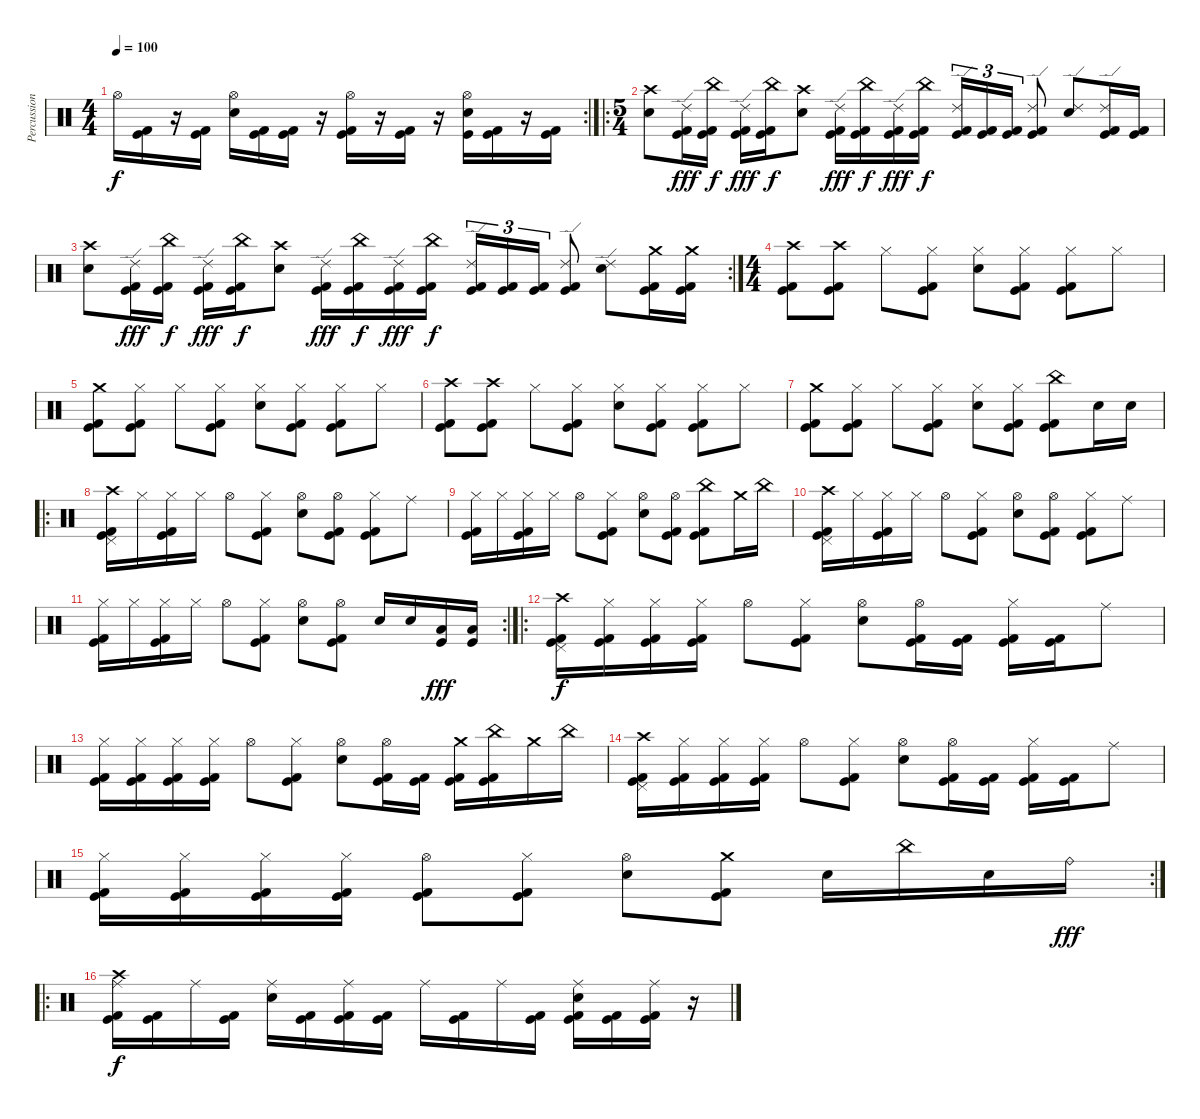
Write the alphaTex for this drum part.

\track ("Percussion" "Percussion") {instrument percussion}
\staff {score}
\articulation defaults
\rc 2
\ts (4 4)
\tempo 100
\clef neutral
\ks c "Hi-Hat (open)".16{dy f}
("Kick (hit) 2" "Kick (hit)").16 r.16 ("Kick (hit) 2" "Kick (hit)").16 ("Hi-Hat (open)" "Snare (hit) 2").16 ("Kick (hit) 2" "Kick (hit)").16 ("Kick (hit) 2" "Kick (hit)").16 r.16 ("Hi-Hat (open)" "Kick (hit) 2" "Kick (hit)").16 r.16 ("Kick (hit) 2" "Kick (hit)").16 r.16 ("Hi-Hat (open)" "Snare (hit) 2" "Kick (hit)").16 ("Kick (hit) 2" "Kick (hit)").16 r.16 ("Kick (hit) 2" "Kick (hit)").16 |
\ro
\ts (5 4)
("Crash high (hit)" "Snare (hit) 2").8 ("Ride (edge) 2" "Kick (hit) 2" "Kick (hit)").16{dy fff} ("China (hit)" "Kick (hit) 2" "Kick (hit)").16{dy f} ("Ride (edge) 2" "Kick (hit) 2" "Kick (hit)").16{dy fff} ("China (hit)" "Kick (hit) 2" "Kick (hit)").16{dy f} ("Crash high (hit)" "Snare (hit) 2").8 ("Ride (edge) 2" "Kick (hit) 2" "Kick (hit)").16{dy fff} ("China (hit)" "Kick (hit) 2" "Kick (hit)").16{dy f} ("Ride (edge) 2" "Kick (hit) 2" "Kick (hit)").16{dy fff} ("China (hit)" "Kick (hit) 2" "Kick (hit)").16{dy f} ("Ride (edge) 2" "Kick (hit) 2" "Kick (hit)").16{tu (3 2)} ("Kick (hit) 2" "Kick (hit)").16{tu (3 2)} ("Kick (hit) 2" "Kick (hit)").16{tu (3 2)} ("Ride (edge) 2" "Kick (hit) 2" "Kick (hit)").8 ("Ride (edge) 2" "Snare (hit) 2").8 ("Ride (edge) 2" "Kick (hit) 2" "Kick (hit)").16 ("Kick (hit) 2" "Kick (hit)").16 |
\rc 2
("Crash high (hit)" "Snare (hit) 2").8 ("Ride (edge) 2" "Kick (hit) 2" "Kick (hit)").16{dy fff} ("China (hit)" "Kick (hit) 2" "Kick (hit)").16{dy f} ("Ride (edge) 2" "Kick (hit) 2" "Kick (hit)").16{dy fff} ("China (hit)" "Kick (hit) 2" "Kick (hit)").16{dy f} ("Crash high (hit)" "Snare (hit) 2").8 ("Ride (edge) 2" "Kick (hit) 2" "Kick (hit)").16{dy fff} ("China (hit)" "Kick (hit) 2" "Kick (hit)").16{dy f} ("Ride (edge) 2" "Kick (hit) 2" "Kick (hit)").16{dy fff} ("China (hit)" "Kick (hit) 2" "Kick (hit)").16{dy f} ("Ride (edge) 2" "Kick (hit) 2" "Kick (hit)").16{tu (3 2)} ("Kick (hit) 2" "Kick (hit)").16{tu (3 2)} ("Kick (hit) 2" "Kick (hit)").16{tu (3 2)} ("Ride (edge) 2" "Kick (hit) 2" "Kick (hit)").8 ("Ride (edge) 2" "Snare (hit) 2").8 ("Crash medium (hit)" "Kick (hit) 2" "Kick (hit)").16 ("Crash medium (hit)" "Kick (hit) 2" "Kick (hit)").16 |
\ts (4 4)
("Crash high (hit)" "Kick (hit) 2" "Kick (hit)").8 ("Crash high (hit)" "Kick (hit) 2" "Kick (hit)").8 "Hi-Hat (closed)".8 ("Hi-Hat (closed)" "Kick (hit) 2" "Kick (hit)").8 ("Hi-Hat (closed)" "Snare (hit) 2").8 ("Hi-Hat (closed)" "Kick (hit) 2" "Kick (hit)").8 ("Hi-Hat (closed)" "Kick (hit) 2" "Kick (hit)").8 "Hi-Hat (closed)".8 |
("Crash medium (hit)" "Kick (hit) 2" "Kick (hit)").8 ("Hi-Hat (closed)" "Kick (hit) 2" "Kick (hit)").8 "Hi-Hat (closed)".8 ("Hi-Hat (closed)" "Kick (hit) 2" "Kick (hit)").8 ("Hi-Hat (closed)" "Snare (hit) 2").8 ("Hi-Hat (closed)" "Kick (hit) 2" "Kick (hit)").8 ("Hi-Hat (closed)" "Kick (hit) 2" "Kick (hit)").8 "Hi-Hat (closed)".8 |
("Crash high (hit)" "Kick (hit) 2" "Kick (hit)").8 ("Crash high (hit)" "Kick (hit) 2" "Kick (hit)").8 "Hi-Hat (closed)".8 ("Hi-Hat (closed)" "Kick (hit) 2" "Kick (hit)").8 ("Hi-Hat (closed)" "Snare (hit) 2").8 ("Hi-Hat (closed)" "Kick (hit) 2" "Kick (hit)").8 ("Hi-Hat (closed)" "Kick (hit) 2" "Kick (hit)").8 "Hi-Hat (closed)".8 |
("Crash medium (hit)" "Kick (hit) 2" "Kick (hit)").8 ("Hi-Hat (closed)" "Kick (hit) 2" "Kick (hit)").8 "Hi-Hat (closed)".8 ("Hi-Hat (closed)" "Kick (hit) 2" "Kick (hit)").8 ("Hi-Hat (closed)" "Snare (hit) 2").8 ("Hi-Hat (closed)" "Kick (hit) 2" "Kick (hit)").8 ("China (hit)" "Kick (hit) 2" "Kick (hit)").8 "Snare (hit) 2".16 "Snare (hit) 2".16 |
\ro
("Pedal Hi-Hat (hit)" "Crash high (hit)" "Kick (hit) 2" "Kick (hit)").16 "Hi-Hat (closed)".16 ("Hi-Hat (closed)" "Kick (hit) 2" "Kick (hit)").16 "Hi-Hat (closed)".16 "Hi-Hat (open)".8 ("Hi-Hat (closed)" "Kick (hit) 2" "Kick (hit)").8 ("Hi-Hat (open)" "Snare (hit) 2").8 ("Hi-Hat (open)" "Kick (hit) 2" "Kick (hit)").8 ("Hi-Hat (closed)" "Kick (hit) 2" "Kick (hit)").8 "Ride (middle)".8 |
("Hi-Hat (closed)" "Kick (hit) 2" "Kick (hit)").16 "Hi-Hat (closed)".16 ("Hi-Hat (closed)" "Kick (hit) 2" "Kick (hit)").16 "Hi-Hat (closed)".16 "Hi-Hat (open)".8 ("Hi-Hat (closed)" "Kick (hit) 2" "Kick (hit)").8 ("Hi-Hat (open)" "Snare (hit) 2").8 ("Hi-Hat (open)" "Kick (hit) 2" "Kick (hit)").8 ("China (hit)" "Kick (hit) 2" "Kick (hit)").8 "Crash medium (hit)".16 "China (hit)".16 |
("Pedal Hi-Hat (hit)" "Crash high (hit)" "Kick (hit) 2" "Kick (hit)").16 "Hi-Hat (closed)".16 ("Hi-Hat (closed)" "Kick (hit) 2" "Kick (hit)").16 "Hi-Hat (closed)".16 "Hi-Hat (open)".8 ("Hi-Hat (closed)" "Kick (hit) 2" "Kick (hit)").8 ("Hi-Hat (open)" "Snare (hit) 2").8 ("Hi-Hat (open)" "Kick (hit) 2" "Kick (hit)").8 ("Hi-Hat (closed)" "Kick (hit) 2" "Kick (hit)").8 "Ride (middle)".8 |
\rc 2
("Hi-Hat (closed)" "Kick (hit) 2" "Kick (hit)").16 "Hi-Hat (closed)".16 ("Hi-Hat (closed)" "Kick (hit) 2" "Kick (hit)").16 "Hi-Hat (closed)".16 "Hi-Hat (open)".8 ("Hi-Hat (closed)" "Kick (hit) 2" "Kick (hit)").8 ("Hi-Hat (open)" "Snare (hit) 2").8 ("Hi-Hat (open)" "Kick (hit) 2" "Kick (hit)").8 "Snare (hit) 2".16 "Snare (hit) 2".16 ("Low Tom (hit)" "Kick (hit)").16{dy fff} ("Low Tom (hit)" "Kick (hit)").16 |
\ro
("Pedal Hi-Hat (hit)" "Crash high (hit)" "Kick (hit) 2" "Kick (hit)").16{dy f} ("Hi-Hat (closed)" "Kick (hit) 2" "Kick (hit)").16 ("Hi-Hat (closed)" "Kick (hit) 2" "Kick (hit)").16 ("Hi-Hat (closed)" "Kick (hit) 2" "Kick (hit)").16 "Hi-Hat (open)".8 ("Hi-Hat (closed)" "Kick (hit) 2" "Kick (hit)").8 ("Hi-Hat (open)" "Snare (hit) 2").8 ("Hi-Hat (open)" "Kick (hit) 2" "Kick (hit)").16 ("Kick (hit) 2" "Kick (hit)").16 ("Hi-Hat (closed)" "Kick (hit) 2" "Kick (hit)").16 ("Kick (hit) 2" "Kick (hit)").16 "Ride (middle)".8 |
("Hi-Hat (closed)" "Kick (hit) 2" "Kick (hit)").16 ("Hi-Hat (closed)" "Kick (hit) 2" "Kick (hit)").16 ("Hi-Hat (closed)" "Kick (hit) 2" "Kick (hit)").16 ("Hi-Hat (closed)" "Kick (hit) 2" "Kick (hit)").16 "Hi-Hat (open)".8 ("Hi-Hat (closed)" "Kick (hit) 2" "Kick (hit)").8 ("Hi-Hat (open)" "Snare (hit) 2").8 ("Hi-Hat (open)" "Kick (hit) 2" "Kick (hit)").16 ("Kick (hit) 2" "Kick (hit)").16 ("Crash medium (hit)" "Kick (hit) 2" "Kick (hit)").16 ("China (hit)" "Kick (hit) 2" "Kick (hit)").16 "Crash medium (hit)".16 "China (hit)".16 |
("Pedal Hi-Hat (hit)" "Crash high (hit)" "Kick (hit) 2" "Kick (hit)").16 ("Hi-Hat (closed)" "Kick (hit) 2" "Kick (hit)").16 ("Hi-Hat (closed)" "Kick (hit) 2" "Kick (hit)").16 ("Hi-Hat (closed)" "Kick (hit) 2" "Kick (hit)").16 "Hi-Hat (open)".8 ("Hi-Hat (closed)" "Kick (hit) 2" "Kick (hit)").8 ("Hi-Hat (open)" "Snare (hit) 2").8 ("Hi-Hat (open)" "Kick (hit) 2" "Kick (hit)").16 ("Kick (hit) 2" "Kick (hit)").16 ("Hi-Hat (closed)" "Kick (hit) 2" "Kick (hit)").16 ("Kick (hit) 2" "Kick (hit)").16 "Ride (middle)".8 |
\rc 2
("Hi-Hat (closed)" "Kick (hit) 2" "Kick (hit)").16 ("Hi-Hat (closed)" "Kick (hit) 2" "Kick (hit)").16 ("Hi-Hat (closed)" "Kick (hit) 2" "Kick (hit)").16 ("Hi-Hat (closed)" "Kick (hit) 2" "Kick (hit)").16 ("Hi-Hat (open)" "Kick (hit) 2" "Kick (hit)").8 ("Hi-Hat (closed)" "Kick (hit) 2" "Kick (hit)").8 ("Hi-Hat (open)" "Snare (hit) 2").8 ("Crash medium (hit)" "Kick (hit) 2" "Kick (hit)").8 "Snare (hit) 2".16 "China (hit)".16 "Snare (hit) 2".16 "Ride (bell)".16{dy fff} |
\ro
("Ride (middle)" "Crash high (hit)" "Kick (hit) 2" "Kick (hit)").16{dy f} ("Kick (hit) 2" "Kick (hit)").16 "Ride (middle)".16 ("Kick (hit) 2" "Kick (hit)").16 ("Ride (middle)" "Snare (hit) 2").16 ("Kick (hit) 2" "Kick (hit)").16 ("Ride (middle)" "Kick (hit) 2" "Kick (hit)").16 ("Kick (hit) 2" "Kick (hit)").16 "Ride (middle)".16 ("Kick (hit) 2" "Kick (hit)").16 "Ride (middle)".16 ("Kick (hit) 2" "Kick (hit)").16 ("Ride (middle)" "Snare (hit) 2" "Kick (hit) 2" "Kick (hit)").16 ("Kick (hit) 2" "Kick (hit)").16 ("Ride (middle)" "Kick (hit) 2" "Kick (hit)").16 r.16
